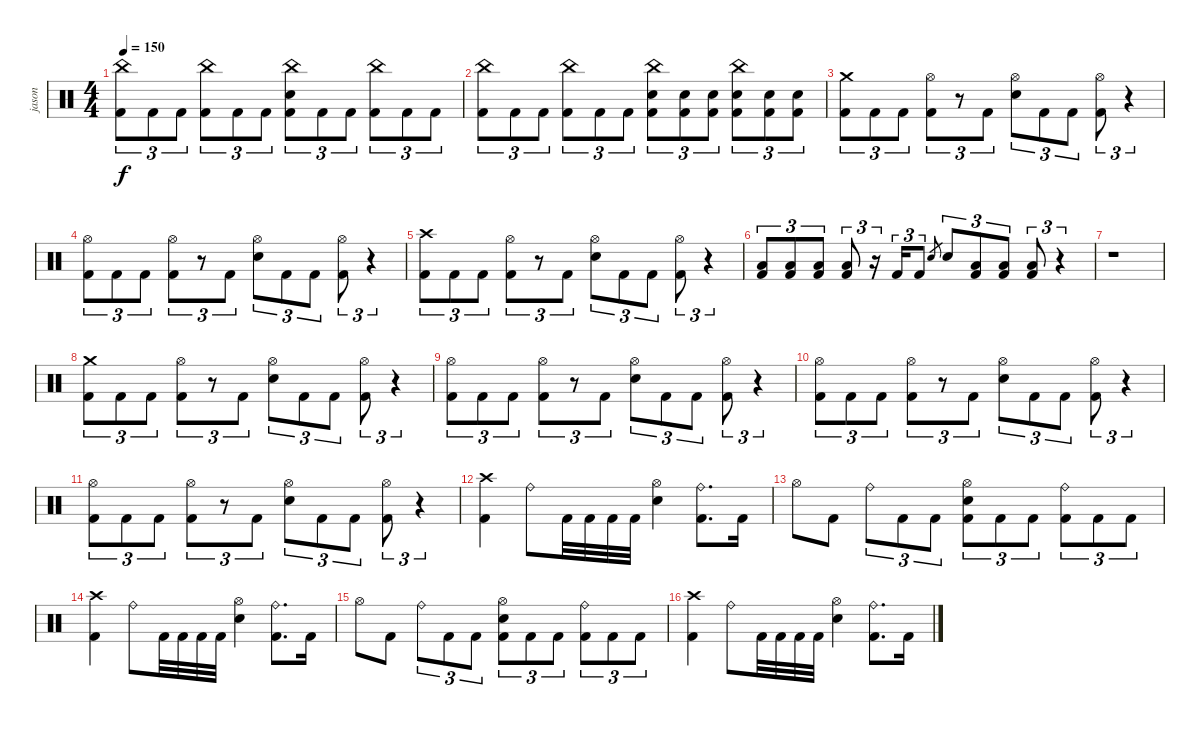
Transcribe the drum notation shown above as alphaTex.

\track ("jason" "jason") {instrument percussion}
\staff {score}
\articulation defaults
\ts (4 4)
\tempo 150
\clef neutral
\ks c
("China (hit)" "Kick (hit) 2").8{tu (3 2) dy f} "Kick (hit) 2".8{tu (3 2)} "Kick (hit) 2".8{tu (3 2)} ("China (hit)" "Kick (hit) 2").8{tu (3 2)} "Kick (hit) 2".8{tu (3 2)} "Kick (hit) 2".8{tu (3 2)} ("China (hit)" "Snare (hit) 2" "Kick (hit) 2").8{tu (3 2)} "Kick (hit) 2".8{tu (3 2)} "Kick (hit) 2".8{tu (3 2)} ("China (hit)" "Kick (hit) 2").8{tu (3 2)} "Kick (hit) 2".8{tu (3 2)} "Kick (hit) 2".8{tu (3 2)} |
("China (hit)" "Kick (hit) 2").8{tu (3 2)} "Kick (hit) 2".8{tu (3 2)} "Kick (hit) 2".8{tu (3 2)} ("China (hit)" "Kick (hit) 2").8{tu (3 2)} "Kick (hit) 2".8{tu (3 2)} "Kick (hit) 2".8{tu (3 2)} ("China (hit)" "Snare (hit) 2" "Kick (hit) 2").8{tu (3 2)} ("Snare (hit) 2" "Kick (hit) 2").8{tu (3 2)} ("Snare (hit) 2" "Kick (hit) 2").8{tu (3 2)} ("China (hit)" "Snare (hit) 2" "Kick (hit) 2").8{tu (3 2)} ("Snare (hit) 2" "Kick (hit) 2").8{tu (3 2)} ("Snare (hit) 2" "Kick (hit) 2").8{tu (3 2)} |
("Crash medium (hit)" "Kick (hit) 2").8{tu (3 2)} "Kick (hit) 2".8{tu (3 2)} "Kick (hit) 2".8{tu (3 2)} ("Hi-Hat (open)" "Kick (hit) 2").8{tu (3 2)} r.8{tu (3 2)} "Kick (hit) 2".8{tu (3 2)} ("Hi-Hat (open)" "Snare (hit) 2").8{tu (3 2)} "Kick (hit) 2".8{tu (3 2)} "Kick (hit) 2".8{tu (3 2)} ("Hi-Hat (open)" "Kick (hit) 2").8{tu (3 2)} r.4{tu (3 2)} |
("Hi-Hat (open)" "Kick (hit) 2").8{tu (3 2)} "Kick (hit) 2".8{tu (3 2)} "Kick (hit) 2".8{tu (3 2)} ("Hi-Hat (open)" "Kick (hit) 2").8{tu (3 2)} r.8{tu (3 2)} "Kick (hit) 2".8{tu (3 2)} ("Hi-Hat (open)" "Snare (hit) 2").8{tu (3 2)} "Kick (hit) 2".8{tu (3 2)} "Kick (hit) 2".8{tu (3 2)} ("Hi-Hat (open)" "Kick (hit) 2").8{tu (3 2)} r.4{tu (3 2)} |
("Crash high (hit)" "Kick (hit) 2").8{tu (3 2)} "Kick (hit) 2".8{tu (3 2)} "Kick (hit) 2".8{tu (3 2)} ("Hi-Hat (open)" "Kick (hit) 2").8{tu (3 2)} r.8{tu (3 2)} "Kick (hit) 2".8{tu (3 2)} ("Hi-Hat (open)" "Snare (hit) 2").8{tu (3 2)} "Kick (hit) 2".8{tu (3 2)} "Kick (hit) 2".8{tu (3 2)} ("Hi-Hat (open)" "Kick (hit) 2").8{tu (3 2)} r.4{tu (3 2)} |
("Low Floor Tom (hit)" "Kick (hit) 2").8{tu (3 2)} ("Low Floor Tom (hit)" "Kick (hit) 2").8{tu (3 2)} ("Low Floor Tom (hit)" "Kick (hit) 2").8{tu (3 2)} ("Low Floor Tom (hit)" "Kick (hit) 2").8{tu (3 2)} r.16{tu (3 2)} "Kick (hit) 2".16{tu (3 2)} "Kick (hit) 2".8{tu (3 2)} "Snare (hit) 2".8{gr} "Snare (hit) 2".8{tu (3 2)} ("Low Floor Tom (hit)" "Kick (hit) 2").8{tu (3 2)} ("Low Floor Tom (hit)" "Kick (hit) 2").8{tu (3 2)} ("Low Floor Tom (hit)" "Kick (hit) 2").8{tu (3 2)} r.4{tu (3 2)} |
r.1 |
("Crash medium (hit)" "Kick (hit) 2").8{tu (3 2)} "Kick (hit) 2".8{tu (3 2)} "Kick (hit) 2".8{tu (3 2)} ("Hi-Hat (open)" "Kick (hit) 2").8{tu (3 2)} r.8{tu (3 2)} "Kick (hit) 2".8{tu (3 2)} ("Hi-Hat (open)" "Snare (hit) 2").8{tu (3 2)} "Kick (hit) 2".8{tu (3 2)} "Kick (hit) 2".8{tu (3 2)} ("Hi-Hat (open)" "Kick (hit) 2").8{tu (3 2)} r.4{tu (3 2)} |
("Hi-Hat (open)" "Kick (hit) 2").8{tu (3 2)} "Kick (hit) 2".8{tu (3 2)} "Kick (hit) 2".8{tu (3 2)} ("Hi-Hat (open)" "Kick (hit) 2").8{tu (3 2)} r.8{tu (3 2)} "Kick (hit) 2".8{tu (3 2)} ("Hi-Hat (open)" "Snare (hit) 2").8{tu (3 2)} "Kick (hit) 2".8{tu (3 2)} "Kick (hit) 2".8{tu (3 2)} ("Hi-Hat (open)" "Kick (hit) 2").8{tu (3 2)} r.4{tu (3 2)} |
("Hi-Hat (open)" "Kick (hit) 2").8{tu (3 2)} "Kick (hit) 2".8{tu (3 2)} "Kick (hit) 2".8{tu (3 2)} ("Hi-Hat (open)" "Kick (hit) 2").8{tu (3 2)} r.8{tu (3 2)} "Kick (hit) 2".8{tu (3 2)} ("Hi-Hat (open)" "Snare (hit) 2").8{tu (3 2)} "Kick (hit) 2".8{tu (3 2)} "Kick (hit) 2".8{tu (3 2)} ("Hi-Hat (open)" "Kick (hit) 2").8{tu (3 2)} r.4{tu (3 2)} |
("Hi-Hat (open)" "Kick (hit) 2").8{tu (3 2)} "Kick (hit) 2".8{tu (3 2)} "Kick (hit) 2".8{tu (3 2)} ("Hi-Hat (open)" "Kick (hit) 2").8{tu (3 2)} r.8{tu (3 2)} "Kick (hit) 2".8{tu (3 2)} ("Hi-Hat (open)" "Snare (hit) 2").8{tu (3 2)} "Kick (hit) 2".8{tu (3 2)} "Kick (hit) 2".8{tu (3 2)} ("Hi-Hat (open)" "Kick (hit) 2").8{tu (3 2)} r.4{tu (3 2)} |
("Crash high (hit)" "Kick (hit) 2").4 "Ride (bell)".8 "Kick (hit) 2".32 "Kick (hit) 2".32 "Kick (hit) 2".32 "Kick (hit) 2".32 ("Hi-Hat (open)" "Snare (hit) 2").4 ("Ride (bell)" "Kick (hit) 2").8{d} "Kick (hit) 2".16 |
"Hi-Hat (open)".8 "Kick (hit) 2".8 "Ride (bell)".8{tu (3 2)} "Kick (hit) 2".8{tu (3 2)} "Kick (hit) 2".8{tu (3 2)} ("Hi-Hat (open)" "Snare (hit) 2" "Kick (hit) 2").8{tu (3 2)} "Kick (hit) 2".8{tu (3 2)} "Kick (hit) 2".8{tu (3 2)} ("Ride (bell)" "Kick (hit) 2").8{tu (3 2)} "Kick (hit) 2".8{tu (3 2)} "Kick (hit) 2".8{tu (3 2)} |
("Crash high (hit)" "Kick (hit) 2").4 "Ride (bell)".8 "Kick (hit) 2".32 "Kick (hit) 2".32 "Kick (hit) 2".32 "Kick (hit) 2".32 ("Hi-Hat (open)" "Snare (hit) 2").4 ("Ride (bell)" "Kick (hit) 2").8{d} "Kick (hit) 2".16 |
"Hi-Hat (open)".8 "Kick (hit) 2".8 "Ride (bell)".8{tu (3 2)} "Kick (hit) 2".8{tu (3 2)} "Kick (hit) 2".8{tu (3 2)} ("Hi-Hat (open)" "Snare (hit) 2" "Kick (hit) 2").8{tu (3 2)} "Kick (hit) 2".8{tu (3 2)} "Kick (hit) 2".8{tu (3 2)} ("Ride (bell)" "Kick (hit) 2").8{tu (3 2)} "Kick (hit) 2".8{tu (3 2)} "Kick (hit) 2".8{tu (3 2)} |
("Crash high (hit)" "Kick (hit) 2").4 "Ride (bell)".8 "Kick (hit) 2".32 "Kick (hit) 2".32 "Kick (hit) 2".32 "Kick (hit) 2".32 ("Hi-Hat (open)" "Snare (hit) 2").4 ("Ride (bell)" "Kick (hit) 2").8{d} "Kick (hit) 2".16
